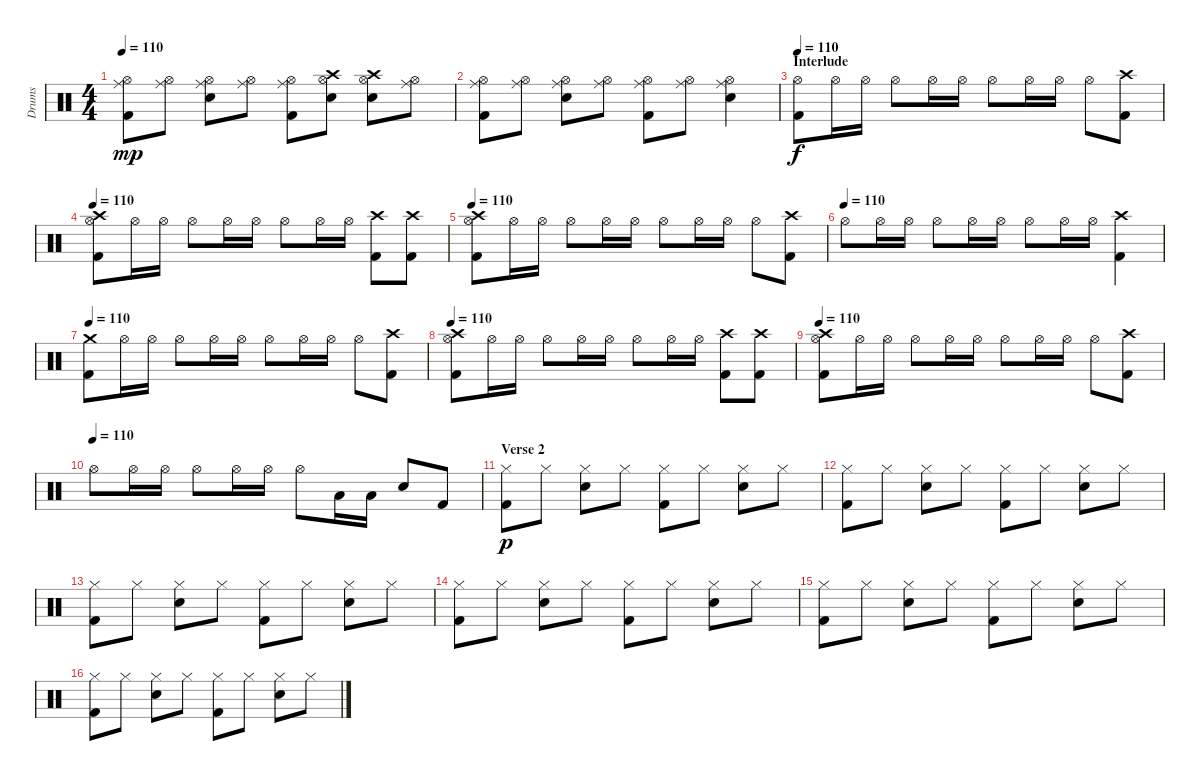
\track ("Drums" "Drums") {instrument percussion}
\staff {score}
\articulation defaults
\ts (4 4)
\tempo 110
\clef neutral
\ks c
("Hi-Hat (open)" "Ride (middle)" "Kick (hit) 2").8{dy mp} ("Hi-Hat (open)" "Ride (middle)").8 ("Hi-Hat (open)" "Ride (middle)" "Snare (hit) 2").8 ("Hi-Hat (open)" "Ride (middle)").8 ("Hi-Hat (open)" "Ride (middle)" "Kick (hit) 2").8 ("Hi-Hat (open)" "Snare (hit) 2" "Crash high (hit)").8 ("Hi-Hat (open)" "Snare (hit) 2" "Crash high (hit)").8 ("Hi-Hat (open)" "Ride (middle)").8 |
("Hi-Hat (open)" "Ride (middle)" "Kick (hit) 2").8 ("Hi-Hat (open)" "Ride (middle)").8 ("Hi-Hat (open)" "Ride (middle)" "Snare (hit) 2").8 ("Hi-Hat (open)" "Ride (middle)").8 ("Hi-Hat (open)" "Ride (middle)" "Kick (hit) 2").8 ("Hi-Hat (open)" "Ride (middle)").8 ("Hi-Hat (open)" "Snare (hit) 2" "Ride (middle)").4 |
\section ("" "Interlude")
\tempo 110
("Hi-Hat (open)" "Kick (hit) 2").8{dy f volume 13} "Hi-Hat (open)".16 "Hi-Hat (open)".16 "Hi-Hat (open)".8{volume 13} "Hi-Hat (open)".16 "Hi-Hat (open)".16 "Hi-Hat (open)".8{volume 13} "Hi-Hat (open)".16 "Hi-Hat (open)".16 "Hi-Hat (open)".8{volume 13} ("Kick (hit) 2" "Crash high (hit)").8 |
\tempo 110
("Hi-Hat (open)" "Crash high (hit)" "Kick (hit) 2").8{volume 13} "Hi-Hat (open)".16 "Hi-Hat (open)".16 "Hi-Hat (open)".8{volume 13} "Hi-Hat (open)".16 "Hi-Hat (open)".16 "Hi-Hat (open)".8{volume 13} "Hi-Hat (open)".16 "Hi-Hat (open)".16 ("Kick (hit) 2" "Crash high (hit)").8{volume 13} ("Kick (hit) 2" "Crash high (hit)").8 |
\tempo 110
("Hi-Hat (open)" "Kick (hit) 2" "Crash high (hit)").8{volume 13} "Hi-Hat (open)".16 "Hi-Hat (open)".16 "Hi-Hat (open)".8{volume 13} "Hi-Hat (open)".16 "Hi-Hat (open)".16 "Hi-Hat (open)".8{volume 13} "Hi-Hat (open)".16 "Hi-Hat (open)".16 "Hi-Hat (open)".8{volume 13} ("Kick (hit) 2" "Crash high (hit)").8 |
\tempo (110)
"Hi-Hat (open)".8{volume 13} "Hi-Hat (open)".16 "Hi-Hat (open)".16 "Hi-Hat (open)".8{volume 13} "Hi-Hat (open)".16 "Hi-Hat (open)".16 "Hi-Hat (open)".8{volume 13} "Hi-Hat (open)".16 "Hi-Hat (open)".16 ("Kick (hit) 2" "Crash high (hit)").4{volume 13} |
\tempo 110
("Crash medium (hit)" "Kick (hit) 2").8{volume 13} "Hi-Hat (open)".16 "Hi-Hat (open)".16 "Hi-Hat (open)".8{volume 13} "Hi-Hat (open)".16 "Hi-Hat (open)".16 "Hi-Hat (open)".8{volume 13} "Hi-Hat (open)".16 "Hi-Hat (open)".16 "Hi-Hat (open)".8{volume 13} ("Kick (hit) 2" "Crash high (hit)").8 |
\tempo 110
("Hi-Hat (open)" "Crash high (hit)" "Kick (hit) 2").8{volume 13} "Hi-Hat (open)".16 "Hi-Hat (open)".16 "Hi-Hat (open)".8{volume 13} "Hi-Hat (open)".16 "Hi-Hat (open)".16 "Hi-Hat (open)".8{volume 13} "Hi-Hat (open)".16 "Hi-Hat (open)".16 ("Kick (hit) 2" "Crash high (hit)").8{volume 13} ("Kick (hit) 2" "Crash high (hit)").8 |
\tempo 110
("Hi-Hat (open)" "Kick (hit) 2" "Crash high (hit)").8{volume 13} "Hi-Hat (open)".16 "Hi-Hat (open)".16 "Hi-Hat (open)".8{volume 13} "Hi-Hat (open)".16 "Hi-Hat (open)".16 "Hi-Hat (open)".8{volume 13} "Hi-Hat (open)".16 "Hi-Hat (open)".16 "Hi-Hat (open)".8{volume 13} ("Kick (hit) 2" "Crash high (hit)").8 |
\tempo (110)
"Hi-Hat (open)".8{volume 13} "Hi-Hat (open)".16 "Hi-Hat (open)".16 "Hi-Hat (open)".8{volume 13} "Hi-Hat (open)".16 "Hi-Hat (open)".16 "Hi-Hat (open)".8{volume 13} "Low Tom (hit)".16 "Low Tom (hit)".16 "Snare (hit) 2".8{volume 13} "Kick (hit) 2".8 |
\section ("" "Verse 2")
("Hi-Hat (closed)" "Kick (hit) 2").8{dy p} "Hi-Hat (closed)".8 ("Hi-Hat (closed)" "Snare (hit) 2").8 "Hi-Hat (closed)".8 ("Hi-Hat (closed)" "Kick (hit) 2").8 "Hi-Hat (closed)".8 ("Hi-Hat (closed)" "Snare (hit) 2").8 "Hi-Hat (closed)".8 |
("Hi-Hat (closed)" "Kick (hit) 2").8 "Hi-Hat (closed)".8 ("Hi-Hat (closed)" "Snare (hit) 2").8 "Hi-Hat (closed)".8 ("Hi-Hat (closed)" "Kick (hit) 2").8 "Hi-Hat (closed)".8 ("Hi-Hat (closed)" "Snare (hit) 2").8 "Hi-Hat (closed)".8 |
("Hi-Hat (closed)" "Kick (hit) 2").8 "Hi-Hat (closed)".8 ("Hi-Hat (closed)" "Snare (hit) 2").8 "Hi-Hat (closed)".8 ("Hi-Hat (closed)" "Kick (hit) 2").8 "Hi-Hat (closed)".8 ("Hi-Hat (closed)" "Snare (hit) 2").8 "Hi-Hat (closed)".8 |
("Hi-Hat (closed)" "Kick (hit) 2").8 "Hi-Hat (closed)".8 ("Hi-Hat (closed)" "Snare (hit) 2").8 "Hi-Hat (closed)".8 ("Hi-Hat (closed)" "Kick (hit) 2").8 "Hi-Hat (closed)".8 ("Hi-Hat (closed)" "Snare (hit) 2").8 "Hi-Hat (closed)".8 |
("Hi-Hat (closed)" "Kick (hit) 2").8 "Hi-Hat (closed)".8 ("Hi-Hat (closed)" "Snare (hit) 2").8 "Hi-Hat (closed)".8 ("Hi-Hat (closed)" "Kick (hit) 2").8 "Hi-Hat (closed)".8 ("Hi-Hat (closed)" "Snare (hit) 2").8 "Hi-Hat (closed)".8 |
("Hi-Hat (closed)" "Kick (hit) 2").8 "Hi-Hat (closed)".8 ("Hi-Hat (closed)" "Snare (hit) 2").8 "Hi-Hat (closed)".8 ("Hi-Hat (closed)" "Kick (hit) 2").8 "Hi-Hat (closed)".8 ("Hi-Hat (closed)" "Snare (hit) 2").8 "Hi-Hat (closed)".8
